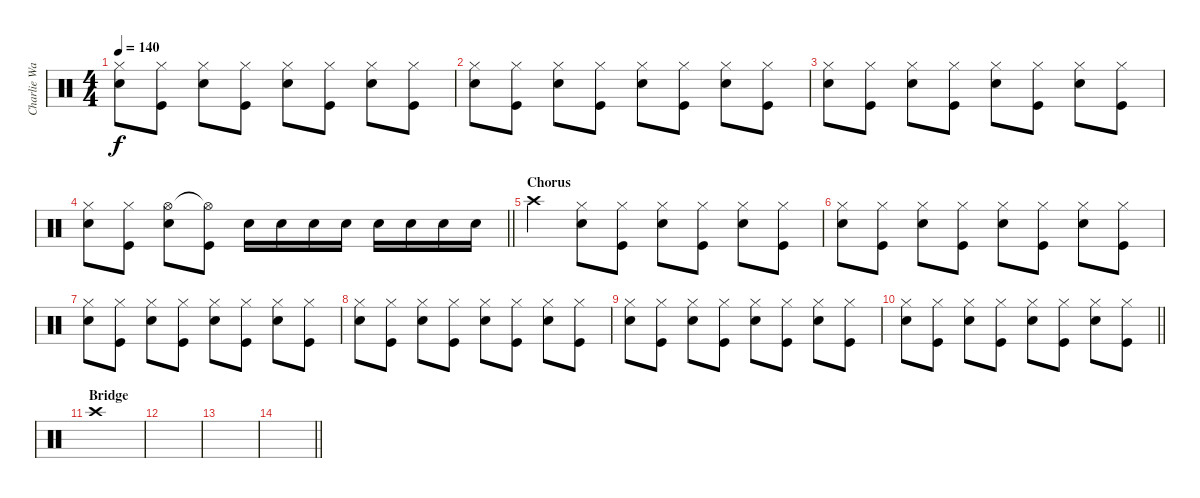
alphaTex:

\track ("Charlie Watts" "Charlie Wa") {instrument percussion}
\staff {score}
\articulation defaults
\ts (4 4)
\tempo 140
\clef neutral
\ks c
("Snare (hit) 2" "Hi-Hat (closed)").8{dy f} ("Kick (hit)" "Hi-Hat (closed)").8 ("Snare (hit) 2" "Hi-Hat (closed)").8 ("Kick (hit)" "Hi-Hat (closed)").8 ("Snare (hit) 2" "Hi-Hat (closed)").8 ("Kick (hit)" "Hi-Hat (closed)").8 ("Snare (hit) 2" "Hi-Hat (closed)").8 ("Kick (hit)" "Hi-Hat (closed)").8 |
("Snare (hit) 2" "Hi-Hat (closed)").8 ("Kick (hit)" "Hi-Hat (closed)").8 ("Snare (hit) 2" "Hi-Hat (closed)").8 ("Kick (hit)" "Hi-Hat (closed)").8 ("Snare (hit) 2" "Hi-Hat (closed)").8 ("Kick (hit)" "Hi-Hat (closed)").8 ("Snare (hit) 2" "Hi-Hat (closed)").8 ("Kick (hit)" "Hi-Hat (closed)").8 |
("Snare (hit) 2" "Hi-Hat (closed)").8 ("Kick (hit)" "Hi-Hat (closed)").8 ("Snare (hit) 2" "Hi-Hat (closed)").8 ("Kick (hit)" "Hi-Hat (closed)").8 ("Snare (hit) 2" "Hi-Hat (closed)").8 ("Kick (hit)" "Hi-Hat (closed)").8 ("Snare (hit) 2" "Hi-Hat (closed)").8 ("Kick (hit)" "Hi-Hat (closed)").8 |
\barLineRight lightlight
("Snare (hit) 2" "Hi-Hat (closed)").8 ("Kick (hit)" "Hi-Hat (closed)").8 ("Snare (hit) 2" "Hi-Hat (open)").8 ("Kick (hit)" "Hi-Hat (open)"{t}).8 "Snare (hit) 2".16 "Snare (hit) 2".16 "Snare (hit) 2".16 "Snare (hit) 2".16 "Snare (hit) 2".16 "Snare (hit) 2".16 "Snare (hit) 2".16 "Snare (hit) 2".16 |
\section ("" "Chorus")
"Crash high (hit)".4 ("Snare (hit) 2" "Hi-Hat (closed)").8 ("Kick (hit)" "Hi-Hat (closed)").8 ("Snare (hit) 2" "Hi-Hat (closed)").8 ("Kick (hit)" "Hi-Hat (closed)").8 ("Snare (hit) 2" "Hi-Hat (closed)").8 ("Kick (hit)" "Hi-Hat (closed)").8 |
("Snare (hit) 2" "Hi-Hat (closed)").8 ("Kick (hit)" "Hi-Hat (closed)").8 ("Snare (hit) 2" "Hi-Hat (closed)").8 ("Kick (hit)" "Hi-Hat (closed)").8 ("Snare (hit) 2" "Hi-Hat (closed)").8 ("Kick (hit)" "Hi-Hat (closed)").8 ("Snare (hit) 2" "Hi-Hat (closed)").8 ("Kick (hit)" "Hi-Hat (closed)").8 |
("Snare (hit) 2" "Hi-Hat (closed)").8 ("Kick (hit)" "Hi-Hat (closed)").8 ("Snare (hit) 2" "Hi-Hat (closed)").8 ("Kick (hit)" "Hi-Hat (closed)").8 ("Snare (hit) 2" "Hi-Hat (closed)").8 ("Kick (hit)" "Hi-Hat (closed)").8 ("Snare (hit) 2" "Hi-Hat (closed)").8 ("Kick (hit)" "Hi-Hat (closed)").8 |
("Snare (hit) 2" "Hi-Hat (closed)").8 ("Kick (hit)" "Hi-Hat (closed)").8 ("Snare (hit) 2" "Hi-Hat (closed)").8 ("Kick (hit)" "Hi-Hat (closed)").8 ("Snare (hit) 2" "Hi-Hat (closed)").8 ("Kick (hit)" "Hi-Hat (closed)").8 ("Snare (hit) 2" "Hi-Hat (closed)").8 ("Kick (hit)" "Hi-Hat (closed)").8 |
("Snare (hit) 2" "Hi-Hat (closed)").8 ("Kick (hit)" "Hi-Hat (closed)").8 ("Snare (hit) 2" "Hi-Hat (closed)").8 ("Kick (hit)" "Hi-Hat (closed)").8 ("Snare (hit) 2" "Hi-Hat (closed)").8 ("Kick (hit)" "Hi-Hat (closed)").8 ("Snare (hit) 2" "Hi-Hat (closed)").8 ("Kick (hit)" "Hi-Hat (closed)").8 |
\barLineRight lightlight
("Snare (hit) 2" "Hi-Hat (closed)").8 ("Kick (hit)" "Hi-Hat (closed)").8 ("Snare (hit) 2" "Hi-Hat (closed)").8 ("Kick (hit)" "Hi-Hat (closed)").8 ("Snare (hit) 2" "Hi-Hat (closed)").8 ("Kick (hit)" "Hi-Hat (closed)").8 ("Snare (hit) 2" "Hi-Hat (closed)").8 ("Kick (hit)" "Hi-Hat (closed)").8 |
\section ("" "Bridge")
"Crash high (hit)".1 |
|
|
\barLineRight lightlight
